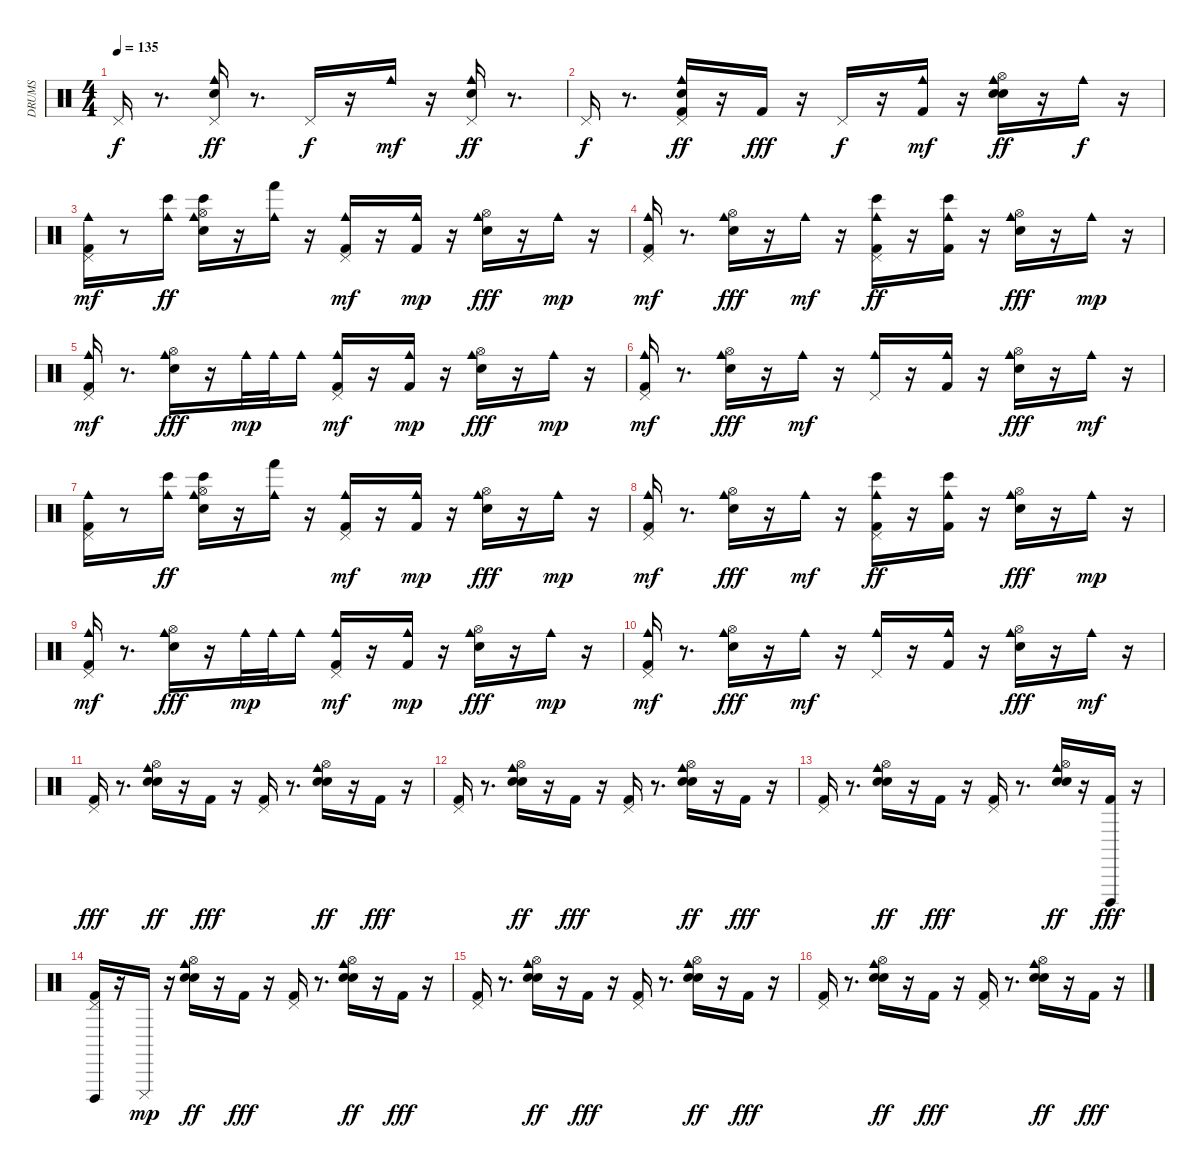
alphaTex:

\track ("DRUMS" "DRUMS") {instrument percussion}
\staff {score}
\articulation defaults
\ts (4 4)
\tempo 135
\clef neutral
\ks c "Pedal Hi-Hat (hit)".16{dy f}
r.8{d} ("Pedal Hi-Hat (hit)" "Cowbell medium (hit)" "Hand Clap (hit)").16{dy ff} r.8{d} "Pedal Hi-Hat (hit)".16{dy f} r.16 "Cowbell medium (hit)".16{dy mf} r.16 ("Pedal Hi-Hat (hit)" "Cowbell medium (hit)" "Hand Clap (hit)").16{dy ff} r.8{d} |
"Pedal Hi-Hat (hit)".16{dy f} r.8{d} ("Kick (hit) 2" "Pedal Hi-Hat (hit)" "Cowbell medium (hit)" "Hand Clap (hit)").16{dy ff} r.16 "Kick (hit) 2".16{dy fff} r.16 "Pedal Hi-Hat (hit)".16{dy f} r.16 ("Kick (hit) 2" "Cowbell medium (hit)").16{dy mf} r.16 ("Snare (hit) 2" "Hi-Hat (open)" "Cowbell medium (hit)" "Hand Clap (hit)").16{dy ff} r.16 "Cowbell medium (hit)".16{dy f} r.16 |
("Kick (hit) 2" "Pedal Hi-Hat (hit)" "Cowbell medium (hit)").16{dy mf} r.8 ("Cowbell medium (hit)" "Bongo High (hit)").16{dy ff} ("Snare (hit) 2" "Hi-Hat (open)" "Cowbell medium (hit)" "Bongo High (hit)").16 r.16 ("Cowbell medium (hit)" "Hand (hit)").16 r.16 ("Kick (hit) 2" "Pedal Hi-Hat (hit)" "Cowbell medium (hit)").16{dy mf} r.16 ("Kick (hit) 2" "Cowbell medium (hit)").16{dy mp} r.16 ("Snare (hit) 2" "Hi-Hat (open)" "Cowbell medium (hit)").16{dy fff} r.16 "Cowbell medium (hit)".16{dy mp} r.16 |
("Kick (hit) 2" "Pedal Hi-Hat (hit)" "Cowbell medium (hit)").16{dy mf} r.8{d} ("Snare (hit) 2" "Hi-Hat (open)" "Cowbell medium (hit)").16{dy fff} r.16 "Cowbell medium (hit)".16{dy mf} r.16 ("Kick (hit) 2" "Pedal Hi-Hat (hit)" "Cowbell medium (hit)" "Bongo High (hit)").16{dy ff} r.16 ("Kick (hit) 2" "Cowbell medium (hit)" "Bongo High (hit)").16 r.16 ("Snare (hit) 2" "Hi-Hat (open)" "Cowbell medium (hit)").16{dy fff} r.16 "Cowbell medium (hit)".16{dy mp} r.16 |
("Kick (hit) 2" "Pedal Hi-Hat (hit)" "Cowbell medium (hit)").16{dy mf} r.8{d} ("Snare (hit) 2" "Hi-Hat (open)" "Cowbell medium (hit)").16{dy fff} r.16 "Cowbell medium (hit)".32{dy mp} "Cowbell medium (hit)".32 "Cowbell medium (hit)".16 ("Kick (hit) 2" "Pedal Hi-Hat (hit)" "Cowbell medium (hit)").16{dy mf} r.16 ("Kick (hit) 2" "Cowbell medium (hit)").16{dy mp} r.16 ("Snare (hit) 2" "Hi-Hat (open)" "Cowbell medium (hit)").16{dy fff} r.16 "Cowbell medium (hit)".16{dy mp} r.16 |
("Kick (hit) 2" "Pedal Hi-Hat (hit)" "Cowbell medium (hit)").16{dy mf} r.8{d} ("Snare (hit) 2" "Hi-Hat (open)" "Cowbell medium (hit)").16{dy fff} r.16 "Cowbell medium (hit)".16{dy mf} r.16 ("Pedal Hi-Hat (hit)" "Cowbell medium (hit)").16 r.16 ("Kick (hit) 2" "Cowbell medium (hit)").16 r.16 ("Snare (hit) 2" "Hi-Hat (open)" "Cowbell medium (hit)").16{dy fff} r.16 "Cowbell medium (hit)".16{dy mf} r.16 |
("Kick (hit) 2" "Pedal Hi-Hat (hit)" "Cowbell medium (hit)").16 r.8 ("Cowbell medium (hit)" "Bongo High (hit)").16{dy ff} ("Snare (hit) 2" "Hi-Hat (open)" "Cowbell medium (hit)" "Bongo High (hit)").16 r.16 ("Cowbell medium (hit)" "Hand (hit)").16 r.16 ("Kick (hit) 2" "Pedal Hi-Hat (hit)" "Cowbell medium (hit)").16{dy mf} r.16 ("Kick (hit) 2" "Cowbell medium (hit)").16{dy mp} r.16 ("Snare (hit) 2" "Hi-Hat (open)" "Cowbell medium (hit)").16{dy fff} r.16 "Cowbell medium (hit)".16{dy mp} r.16 |
("Kick (hit) 2" "Pedal Hi-Hat (hit)" "Cowbell medium (hit)").16{dy mf} r.8{d} ("Snare (hit) 2" "Hi-Hat (open)" "Cowbell medium (hit)").16{dy fff} r.16 "Cowbell medium (hit)".16{dy mf} r.16 ("Kick (hit) 2" "Pedal Hi-Hat (hit)" "Cowbell medium (hit)" "Bongo High (hit)").16{dy ff} r.16 ("Kick (hit) 2" "Cowbell medium (hit)" "Bongo High (hit)").16 r.16 ("Snare (hit) 2" "Hi-Hat (open)" "Cowbell medium (hit)").16{dy fff} r.16 "Cowbell medium (hit)".16{dy mp} r.16 |
("Kick (hit) 2" "Pedal Hi-Hat (hit)" "Cowbell medium (hit)").16{dy mf} r.8{d} ("Snare (hit) 2" "Hi-Hat (open)" "Cowbell medium (hit)").16{dy fff} r.16 "Cowbell medium (hit)".32{dy mp} "Cowbell medium (hit)".32 "Cowbell medium (hit)".16 ("Kick (hit) 2" "Pedal Hi-Hat (hit)" "Cowbell medium (hit)").16{dy mf} r.16 ("Kick (hit) 2" "Cowbell medium (hit)").16{dy mp} r.16 ("Snare (hit) 2" "Hi-Hat (open)" "Cowbell medium (hit)").16{dy fff} r.16 "Cowbell medium (hit)".16{dy mp} r.16 |
("Kick (hit) 2" "Pedal Hi-Hat (hit)" "Cowbell medium (hit)").16{dy mf} r.8{d} ("Snare (hit) 2" "Hi-Hat (open)" "Cowbell medium (hit)").16{dy fff} r.16 "Cowbell medium (hit)".16{dy mf} r.16 ("Pedal Hi-Hat (hit)" "Cowbell medium (hit)").16 r.16 ("Kick (hit) 2" "Cowbell medium (hit)").16 r.16 ("Snare (hit) 2" "Hi-Hat (open)" "Cowbell medium (hit)").16{dy fff} r.16 "Cowbell medium (hit)".16{dy mf} r.16 |
("Kick (hit) 2" "Pedal Hi-Hat (hit)").16{dy fff} r.8{d} ("Snare (hit) 2" "Hi-Hat (open)" "Cowbell medium (hit)" "Hand Clap (hit)").16{dy ff} r.16 "Kick (hit) 2".16{dy fff} r.16 ("Kick (hit) 2" "Pedal Hi-Hat (hit)").16 r.8{d} ("Snare (hit) 2" "Hi-Hat (open)" "Cowbell medium (hit)" "Hand Clap (hit)").16{dy ff} r.16 "Kick (hit) 2".16{dy fff} r.16 |
("Kick (hit) 2" "Pedal Hi-Hat (hit)").16 r.8{d} ("Snare (hit) 2" "Hi-Hat (open)" "Cowbell medium (hit)" "Hand Clap (hit)").16{dy ff} r.16 "Kick (hit) 2".16{dy fff} r.16 ("Kick (hit) 2" "Pedal Hi-Hat (hit)").16 r.8{d} ("Snare (hit) 2" "Hi-Hat (open)" "Cowbell medium (hit)" "Hand Clap (hit)").16{dy ff} r.16 "Kick (hit) 2".16{dy fff} r.16 |
("Kick (hit) 2" "Pedal Hi-Hat (hit)").16 r.8{d} ("Snare (hit) 2" "Hi-Hat (open)" "Cowbell medium (hit)" "Hand Clap (hit)").16{dy ff} r.16 "Kick (hit) 2".16{dy fff} r.16 ("Kick (hit) 2" "Pedal Hi-Hat (hit)").16 r.8{d} ("Snare (hit) 2" "Hi-Hat (open)" "Cowbell medium (hit)" "Hand Clap (hit)").16{dy ff} r.16 ("Cuica (open)" "Kick (hit) 2").16{dy fff} r.16 |
("Cuica (open)" "Kick (hit) 2" "Pedal Hi-Hat (hit)").16 r.16 "Cuica (mute)".16{dy mp} r.16 ("Snare (hit) 2" "Hi-Hat (open)" "Cowbell medium (hit)" "Hand Clap (hit)").16{dy ff} r.16 "Kick (hit) 2".16{dy fff} r.16 ("Kick (hit) 2" "Pedal Hi-Hat (hit)").16 r.8{d} ("Snare (hit) 2" "Hi-Hat (open)" "Cowbell medium (hit)" "Hand Clap (hit)").16{dy ff} r.16 "Kick (hit) 2".16{dy fff} r.16 |
("Kick (hit) 2" "Pedal Hi-Hat (hit)").16 r.8{d} ("Snare (hit) 2" "Hi-Hat (open)" "Cowbell medium (hit)" "Hand Clap (hit)").16{dy ff} r.16 "Kick (hit) 2".16{dy fff} r.16 ("Kick (hit) 2" "Pedal Hi-Hat (hit)").16 r.8{d} ("Snare (hit) 2" "Hi-Hat (open)" "Cowbell medium (hit)" "Hand Clap (hit)").16{dy ff} r.16 "Kick (hit) 2".16{dy fff} r.16 |
("Kick (hit) 2" "Pedal Hi-Hat (hit)").16 r.8{d} ("Snare (hit) 2" "Hi-Hat (open)" "Cowbell medium (hit)" "Hand Clap (hit)").16{dy ff} r.16 "Kick (hit) 2".16{dy fff} r.16 ("Kick (hit) 2" "Pedal Hi-Hat (hit)").16 r.8{d} ("Snare (hit) 2" "Hi-Hat (open)" "Cowbell medium (hit)" "Hand Clap (hit)").16{dy ff} r.16 "Kick (hit) 2".16{dy fff} r.16
